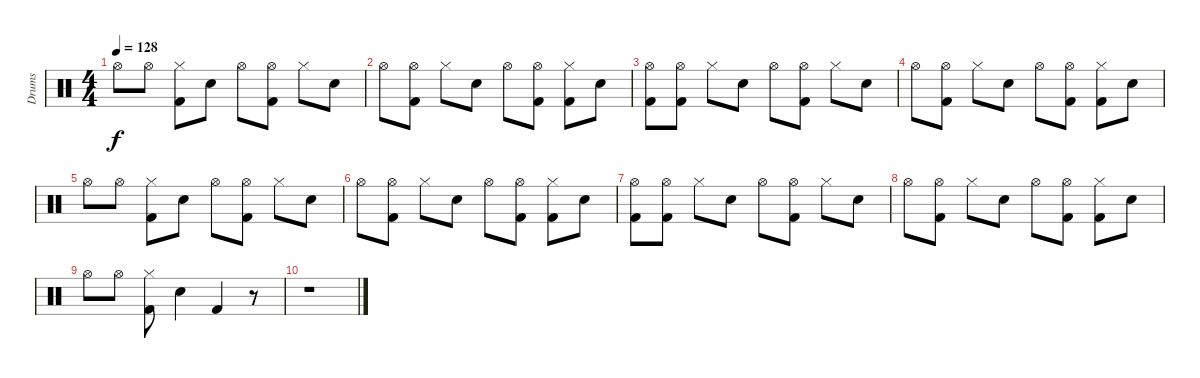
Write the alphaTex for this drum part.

\track ("Drums" "Drums") {instrument percussion}
\staff {score}
\articulation defaults
\ts (4 4)
\tempo 128
\clef neutral
\ks c "Hi-Hat (open)".8{dy f} "Hi-Hat (open)".8
("Hi-Hat (closed)" "Kick (hit) 2").8 "Snare (hit) 2".8 "Hi-Hat (open)".8 ("Hi-Hat (open)" "Kick (hit) 2").8 "Hi-Hat (closed)".8 "Snare (hit) 2".8 |
"Hi-Hat (open)".8 ("Hi-Hat (open)" "Kick (hit) 2").8 "Hi-Hat (closed)".8 "Snare (hit) 2".8 "Hi-Hat (open)".8 ("Hi-Hat (open)" "Kick (hit) 2").8 ("Hi-Hat (closed)" "Kick (hit) 2").8 "Snare (hit) 2".8 |
("Hi-Hat (open)" "Kick (hit) 2").8 ("Hi-Hat (open)" "Kick (hit) 2").8 "Hi-Hat (closed)".8 "Snare (hit) 2".8 "Hi-Hat (open)".8 ("Hi-Hat (open)" "Kick (hit) 2").8 "Hi-Hat (closed)".8 "Snare (hit) 2".8 |
"Hi-Hat (open)".8 ("Hi-Hat (open)" "Kick (hit) 2").8 "Hi-Hat (closed)".8 "Snare (hit) 2".8 "Hi-Hat (open)".8 ("Hi-Hat (open)" "Kick (hit) 2").8 ("Hi-Hat (closed)" "Kick (hit) 2").8 "Snare (hit) 2".8 |
"Hi-Hat (open)".8 "Hi-Hat (open)".8 ("Hi-Hat (closed)" "Kick (hit) 2").8 "Snare (hit) 2".8 "Hi-Hat (open)".8 ("Hi-Hat (open)" "Kick (hit) 2").8 "Hi-Hat (closed)".8 "Snare (hit) 2".8 |
"Hi-Hat (open)".8 ("Hi-Hat (open)" "Kick (hit) 2").8 "Hi-Hat (closed)".8 "Snare (hit) 2".8 "Hi-Hat (open)".8 ("Hi-Hat (open)" "Kick (hit) 2").8 ("Hi-Hat (closed)" "Kick (hit) 2").8 "Snare (hit) 2".8 |
("Hi-Hat (open)" "Kick (hit) 2").8 ("Hi-Hat (open)" "Kick (hit) 2").8 "Hi-Hat (closed)".8 "Snare (hit) 2".8 "Hi-Hat (open)".8 ("Hi-Hat (open)" "Kick (hit) 2").8 "Hi-Hat (closed)".8 "Snare (hit) 2".8 |
"Hi-Hat (open)".8 ("Hi-Hat (open)" "Kick (hit) 2").8 "Hi-Hat (closed)".8 "Snare (hit) 2".8 "Hi-Hat (open)".8 ("Hi-Hat (open)" "Kick (hit) 2").8 ("Hi-Hat (closed)" "Kick (hit) 2").8 "Snare (hit) 2".8 |
"Hi-Hat (open)".8 "Hi-Hat (open)".8 ("Hi-Hat (closed)" "Kick (hit) 2").8 "Snare (hit) 2".4 "Kick (hit) 2".4 r.8 |
r.1
